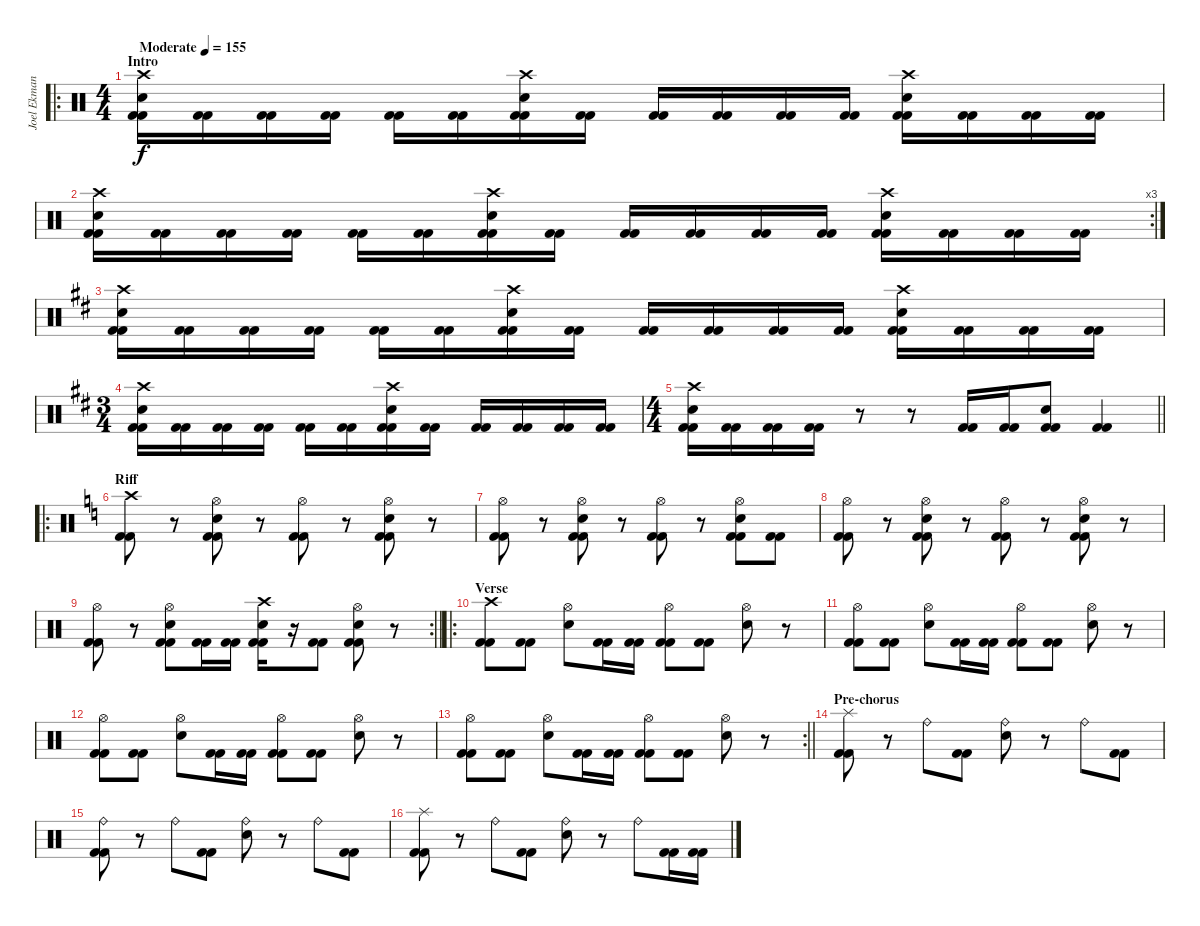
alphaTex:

\track ("Joel Ekman-percussion tab" "Joel Ekman") {instrument percussion}
\staff {score}
\articulation defaults
\ro
\ts (4 4)
\section ("" "Intro")
\tempo (155 "Moderate")
\clef neutral
\ks c
("Crash high (hit)" "Snare (hit) 2" "Kick (hit) 2" "Kick (hit) 2").16{dy f} ("Kick (hit) 2" "Kick (hit) 2").16 ("Kick (hit) 2" "Kick (hit) 2").16 ("Kick (hit) 2" "Kick (hit) 2").16 ("Kick (hit) 2" "Kick (hit) 2").16 ("Kick (hit) 2" "Kick (hit) 2").16 ("Crash high (hit)" "Snare (hit) 2" "Kick (hit) 2" "Kick (hit) 2").16 ("Kick (hit) 2" "Kick (hit) 2").16 ("Kick (hit) 2" "Kick (hit) 2").16 ("Kick (hit) 2" "Kick (hit) 2").16 ("Kick (hit) 2" "Kick (hit) 2").16 ("Kick (hit) 2" "Kick (hit) 2").16 ("Crash high (hit)" "Snare (hit) 2" "Kick (hit) 2" "Kick (hit) 2").16 ("Kick (hit) 2" "Kick (hit) 2").16 ("Kick (hit) 2" "Kick (hit) 2").16 ("Kick (hit) 2" "Kick (hit) 2").16 |
\rc 3
("Crash high (hit)" "Snare (hit) 2" "Kick (hit) 2" "Kick (hit) 2").16 ("Kick (hit) 2" "Kick (hit) 2").16 ("Kick (hit) 2" "Kick (hit) 2").16 ("Kick (hit) 2" "Kick (hit) 2").16 ("Kick (hit) 2" "Kick (hit) 2").16 ("Kick (hit) 2" "Kick (hit) 2").16 ("Crash high (hit)" "Snare (hit) 2" "Kick (hit) 2" "Kick (hit) 2").16 ("Kick (hit) 2" "Kick (hit) 2").16 ("Kick (hit) 2" "Kick (hit) 2").16 ("Kick (hit) 2" "Kick (hit) 2").16 ("Kick (hit) 2" "Kick (hit) 2").16 ("Kick (hit) 2" "Kick (hit) 2").16 ("Crash high (hit)" "Snare (hit) 2" "Kick (hit) 2" "Kick (hit) 2").16 ("Kick (hit) 2" "Kick (hit) 2").16 ("Kick (hit) 2" "Kick (hit) 2").16 ("Kick (hit) 2" "Kick (hit) 2").16 |
\ks d
("Crash high (hit)" "Snare (hit) 2" "Kick (hit) 2" "Kick (hit) 2").16 ("Kick (hit) 2" "Kick (hit) 2").16 ("Kick (hit) 2" "Kick (hit) 2").16 ("Kick (hit) 2" "Kick (hit) 2").16 ("Kick (hit) 2" "Kick (hit) 2").16 ("Kick (hit) 2" "Kick (hit) 2").16 ("Crash high (hit)" "Snare (hit) 2" "Kick (hit) 2" "Kick (hit) 2").16 ("Kick (hit) 2" "Kick (hit) 2").16 ("Kick (hit) 2" "Kick (hit) 2").16 ("Kick (hit) 2" "Kick (hit) 2").16 ("Kick (hit) 2" "Kick (hit) 2").16 ("Kick (hit) 2" "Kick (hit) 2").16 ("Crash high (hit)" "Snare (hit) 2" "Kick (hit) 2" "Kick (hit) 2").16 ("Kick (hit) 2" "Kick (hit) 2").16 ("Kick (hit) 2" "Kick (hit) 2").16 ("Kick (hit) 2" "Kick (hit) 2").16 |
\ts (3 4)
("Crash high (hit)" "Snare (hit) 2" "Kick (hit) 2" "Kick (hit) 2").16 ("Kick (hit) 2" "Kick (hit) 2").16 ("Kick (hit) 2" "Kick (hit) 2").16 ("Kick (hit) 2" "Kick (hit) 2").16 ("Kick (hit) 2" "Kick (hit) 2").16 ("Kick (hit) 2" "Kick (hit) 2").16 ("Crash high (hit)" "Snare (hit) 2" "Kick (hit) 2" "Kick (hit) 2").16 ("Kick (hit) 2" "Kick (hit) 2").16 ("Kick (hit) 2" "Kick (hit) 2").16 ("Kick (hit) 2" "Kick (hit) 2").16 ("Kick (hit) 2" "Kick (hit) 2").16 ("Kick (hit) 2" "Kick (hit) 2").16 |
\ts (4 4)
\barLineRight lightlight
("Crash high (hit)" "Snare (hit) 2" "Kick (hit) 2" "Kick (hit) 2").16 ("Kick (hit) 2" "Kick (hit) 2").16 ("Kick (hit) 2" "Kick (hit) 2").16 ("Kick (hit) 2" "Kick (hit) 2").16 r.8 r.8 ("Kick (hit) 2" "Kick (hit) 2").16 ("Kick (hit) 2" "Kick (hit) 2").16 ("Snare (hit) 2" "Kick (hit) 2" "Kick (hit) 2").8 ("Kick (hit) 2" "Kick (hit) 2").4 |
\ro
\section ("" "Riff")
\ks c
("Crash high (hit)" "Kick (hit) 2" "Kick (hit) 2").8 r.8 ("Hi-Hat (open)" "Snare (hit) 2" "Kick (hit) 2" "Kick (hit) 2").8 r.8 ("Hi-Hat (open)" "Kick (hit) 2" "Kick (hit) 2").8 r.8 ("Hi-Hat (open)" "Snare (hit) 2" "Kick (hit) 2" "Kick (hit) 2").8 r.8 |
("Hi-Hat (open)" "Kick (hit) 2" "Kick (hit) 2").8 r.8 ("Hi-Hat (open)" "Snare (hit) 2" "Kick (hit) 2" "Kick (hit) 2").8 r.8 ("Hi-Hat (open)" "Kick (hit) 2" "Kick (hit) 2").8 r.8 ("Hi-Hat (open)" "Snare (hit) 2" "Kick (hit) 2" "Kick (hit) 2").8 ("Kick (hit) 2" "Kick (hit) 2").8 |
("Hi-Hat (open)" "Kick (hit) 2" "Kick (hit) 2").8 r.8 ("Hi-Hat (open)" "Snare (hit) 2" "Kick (hit) 2" "Kick (hit) 2").8 r.8 ("Hi-Hat (open)" "Kick (hit) 2" "Kick (hit) 2").8 r.8 ("Hi-Hat (open)" "Snare (hit) 2" "Kick (hit) 2" "Kick (hit) 2").8 r.8 |
\rc 2
\barLineRight lightlight
("Hi-Hat (open)" "Kick (hit) 2" "Kick (hit) 2").8 r.8 ("Hi-Hat (open)" "Snare (hit) 2" "Kick (hit) 2" "Kick (hit) 2").8 ("Kick (hit) 2" "Kick (hit) 2").16 ("Kick (hit) 2" "Kick (hit) 2").16 ("Crash high (hit)" "Snare (hit) 2" "Kick (hit) 2" "Kick (hit) 2").16 r.16 ("Kick (hit) 2" "Kick (hit) 2").8 ("Hi-Hat (open)" "Snare (hit) 2" "Kick (hit) 2" "Kick (hit) 2").8 r.8 |
\ro
\section ("" "Verse")
("Crash high (hit)" "Kick (hit) 2" "Kick (hit) 2").8 ("Kick (hit) 2" "Kick (hit) 2").8 ("Hi-Hat (open)" "Snare (hit) 2").8 ("Kick (hit) 2" "Kick (hit) 2").16 ("Kick (hit) 2" "Kick (hit) 2").16 ("Hi-Hat (open)" "Kick (hit) 2" "Kick (hit) 2").8 ("Kick (hit) 2" "Kick (hit) 2").8 ("Hi-Hat (open)" "Snare (hit) 2").8 r.8 |
("Hi-Hat (open)" "Kick (hit) 2" "Kick (hit) 2").8 ("Kick (hit) 2" "Kick (hit) 2").8 ("Hi-Hat (open)" "Snare (hit) 2").8 ("Kick (hit) 2" "Kick (hit) 2").16 ("Kick (hit) 2" "Kick (hit) 2").16 ("Hi-Hat (open)" "Kick (hit) 2" "Kick (hit) 2").8 ("Kick (hit) 2" "Kick (hit) 2").8 ("Hi-Hat (open)" "Snare (hit) 2").8 r.8 |
("Hi-Hat (open)" "Kick (hit) 2" "Kick (hit) 2").8 ("Kick (hit) 2" "Kick (hit) 2").8 ("Hi-Hat (open)" "Snare (hit) 2").8 ("Kick (hit) 2" "Kick (hit) 2").16 ("Kick (hit) 2" "Kick (hit) 2").16 ("Hi-Hat (open)" "Kick (hit) 2" "Kick (hit) 2").8 ("Kick (hit) 2" "Kick (hit) 2").8 ("Hi-Hat (open)" "Snare (hit) 2").8 r.8 |
\rc 2
\barLineRight lightlight
("Hi-Hat (open)" "Kick (hit) 2" "Kick (hit) 2").8 ("Kick (hit) 2" "Kick (hit) 2").8 ("Hi-Hat (open)" "Snare (hit) 2").8 ("Kick (hit) 2" "Kick (hit) 2").16 ("Kick (hit) 2" "Kick (hit) 2").16 ("Hi-Hat (open)" "Kick (hit) 2" "Kick (hit) 2").8 ("Kick (hit) 2" "Kick (hit) 2").8 ("Hi-Hat (open)" "Snare (hit) 2").8 r.8 |
\section ("" "Pre-chorus")
("Splash (hit)" "Kick (hit) 2" "Kick (hit) 2").8 r.8 "Ride (bell)".8 ("Kick (hit) 2" "Kick (hit) 2").8 ("Ride (bell)" "Snare (hit) 2").8 r.8 "Ride (bell)".8 ("Kick (hit) 2" "Kick (hit) 2").8 |
("Ride (bell)" "Kick (hit) 2" "Kick (hit) 2").8 r.8 "Ride (bell)".8 ("Kick (hit) 2" "Kick (hit) 2").8 ("Ride (bell)" "Snare (hit) 2").8 r.8 "Ride (bell)".8 ("Kick (hit) 2" "Kick (hit) 2").8 |
("Splash (hit)" "Kick (hit) 2" "Kick (hit) 2").8 r.8 "Ride (bell)".8 ("Kick (hit) 2" "Kick (hit) 2").8 ("Ride (bell)" "Snare (hit) 2").8 r.8 "Ride (bell)".8 ("Kick (hit) 2" "Kick (hit) 2").16 ("Kick (hit) 2" "Kick (hit) 2").16
